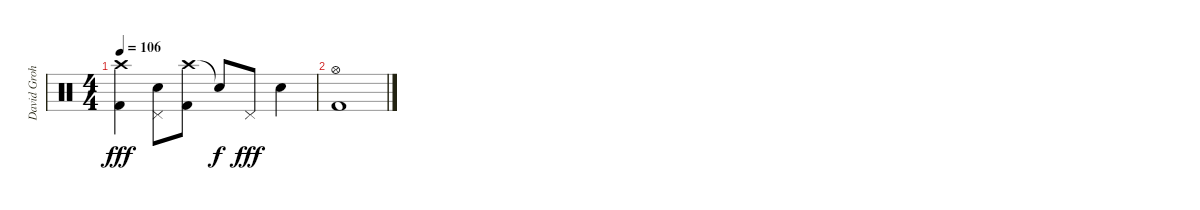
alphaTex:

\track ("David Grohl 2 Crash Style !!" "David Groh") {instrument percussion}
\staff {score}
\articulation defaults
\ts (4 4)
\tempo 106
\clef neutral
\ks c
("Crash high (hit)" "Kick (hit) 2").4{dy fff} ("Pedal Hi-Hat (hit)" "Snare (hit) 2").8 ("Crash high (hit)" "Kick (hit) 2").8 "Snare (hit)"{t}.8{dy f} "Pedal Hi-Hat (hit)".8{dy fff} "Snare (hit) 2".4 |
("Hi-Hat (open)" "Kick (hit) 2").1
